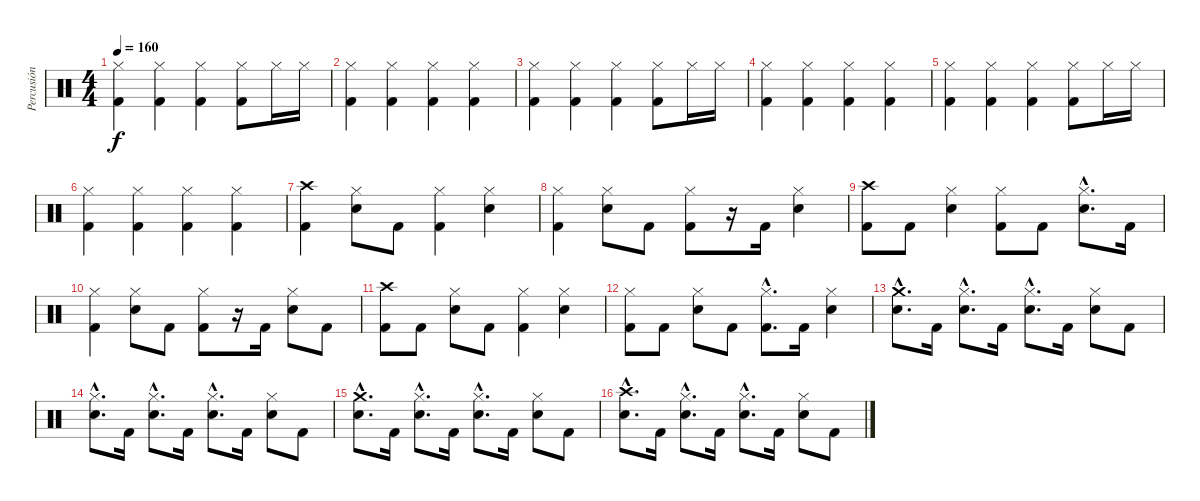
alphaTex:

\track ("Percusión" "Percusión") {instrument percussion}
\staff {score}
\articulation defaults
\ts (4 4)
\tempo 160
\clef neutral
\ks c
("Hi-Hat (closed)" "Kick (hit) 2").4{dy f} ("Hi-Hat (closed)" "Kick (hit) 2").4 ("Hi-Hat (closed)" "Kick (hit) 2").4 ("Hi-Hat (closed)" "Kick (hit) 2").8 "Hi-Hat (closed)".16 "Hi-Hat (closed)".16 |
("Hi-Hat (closed)" "Kick (hit) 2").4 ("Hi-Hat (closed)" "Kick (hit) 2").4 ("Hi-Hat (closed)" "Kick (hit) 2").4 ("Hi-Hat (closed)" "Kick (hit) 2").4 |
("Hi-Hat (closed)" "Kick (hit) 2").4 ("Hi-Hat (closed)" "Kick (hit) 2").4 ("Hi-Hat (closed)" "Kick (hit) 2").4 ("Hi-Hat (closed)" "Kick (hit) 2").8 "Hi-Hat (closed)".16 "Hi-Hat (closed)".16 |
("Hi-Hat (closed)" "Kick (hit) 2").4 ("Hi-Hat (closed)" "Kick (hit) 2").4 ("Hi-Hat (closed)" "Kick (hit) 2").4 ("Hi-Hat (closed)" "Kick (hit) 2").4 |
("Hi-Hat (closed)" "Kick (hit) 2").4 ("Hi-Hat (closed)" "Kick (hit) 2").4 ("Hi-Hat (closed)" "Kick (hit) 2").4 ("Hi-Hat (closed)" "Kick (hit) 2").8 "Hi-Hat (closed)".16 "Hi-Hat (closed)".16 |
("Hi-Hat (closed)" "Kick (hit) 2").4 ("Hi-Hat (closed)" "Kick (hit) 2").4 ("Hi-Hat (closed)" "Kick (hit) 2").4 ("Hi-Hat (closed)" "Kick (hit) 2").4 |
("Crash high (hit)" "Kick (hit) 2").4 ("Hi-Hat (closed)" "Electric Snare (hit)").8 "Kick (hit) 2".8 ("Hi-Hat (closed)" "Kick (hit) 2").4 ("Hi-Hat (closed)" "Electric Snare (hit)").4 |
("Hi-Hat (closed)" "Kick (hit) 2").4 ("Hi-Hat (closed)" "Electric Snare (hit)").8 "Kick (hit) 2".8 ("Hi-Hat (closed)" "Kick (hit) 2").8 r.16 "Kick (hit) 2".16 ("Hi-Hat (closed)" "Electric Snare (hit)").4 |
("Crash high (hit)" "Kick (hit) 2").8 "Kick (hit) 2".8 ("Hi-Hat (closed)" "Electric Snare (hit)").4 ("Hi-Hat (closed)" "Kick (hit) 2").8 "Kick (hit) 2".8 ("Hi-Hat (closed)"{hac} "Electric Snare (hit)"{hac}).8{d} "Kick (hit) 2".16 |
("Hi-Hat (closed)" "Kick (hit) 2").4 ("Hi-Hat (closed)" "Electric Snare (hit)").8 "Kick (hit) 2".8 ("Hi-Hat (closed)" "Kick (hit) 2").8 r.16 "Kick (hit) 2".16 ("Hi-Hat (closed)" "Electric Snare (hit)").8 "Kick (hit) 2".8 |
("Crash high (hit)" "Kick (hit) 2").8 "Kick (hit) 2".8 ("Hi-Hat (closed)" "Electric Snare (hit)").8 "Kick (hit) 2".8 ("Hi-Hat (closed)" "Kick (hit) 2").4 ("Hi-Hat (closed)" "Electric Snare (hit)").4 |
("Hi-Hat (closed)" "Kick (hit) 2").8 "Kick (hit) 2".8 ("Hi-Hat (closed)" "Electric Snare (hit)").8 "Kick (hit) 2".8 ("Hi-Hat (closed)"{hac} "Kick (hit) 2"{hac}).8{d} "Kick (hit) 2".16 ("Hi-Hat (closed)" "Electric Snare (hit)").4 |
("Crash medium (hit)"{hac} "Electric Snare (hit)"{hac}).8{d} "Kick (hit) 2".16 ("Hi-Hat (closed)"{hac} "Electric Snare (hit)"{hac}).8{d} "Kick (hit) 2".16 ("Hi-Hat (closed)"{hac} "Electric Snare (hit)"{hac}).8{d} "Kick (hit) 2".16 ("Hi-Hat (closed)" "Electric Snare (hit)").8 "Kick (hit) 2".8 |
("Hi-Hat (closed)"{hac} "Electric Snare (hit)"{hac}).8{d} "Kick (hit) 2".16 ("Hi-Hat (closed)"{hac} "Electric Snare (hit)"{hac}).8{d} "Kick (hit) 2".16 ("Hi-Hat (closed)"{hac} "Electric Snare (hit)"{hac}).8{d} "Kick (hit) 2".16 ("Hi-Hat (closed)" "Electric Snare (hit)").8 "Kick (hit) 2".8 |
("Crash medium (hit)"{hac} "Electric Snare (hit)"{hac}).8{d} "Kick (hit) 2".16 ("Hi-Hat (closed)"{hac} "Electric Snare (hit)"{hac}).8{d} "Kick (hit) 2".16 ("Hi-Hat (closed)"{hac} "Electric Snare (hit)"{hac}).8{d} "Kick (hit) 2".16 ("Hi-Hat (closed)" "Electric Snare (hit)").8 "Kick (hit) 2".8 |
("Crash high (hit)"{hac} "Electric Snare (hit)"{hac}).8{d} "Kick (hit) 2".16 ("Hi-Hat (closed)"{hac} "Electric Snare (hit)"{hac}).8{d} "Kick (hit) 2".16 ("Hi-Hat (closed)"{hac} "Electric Snare (hit)"{hac}).8{d} "Kick (hit) 2".16 ("Hi-Hat (closed)" "Electric Snare (hit)").8 "Kick (hit) 2".8
